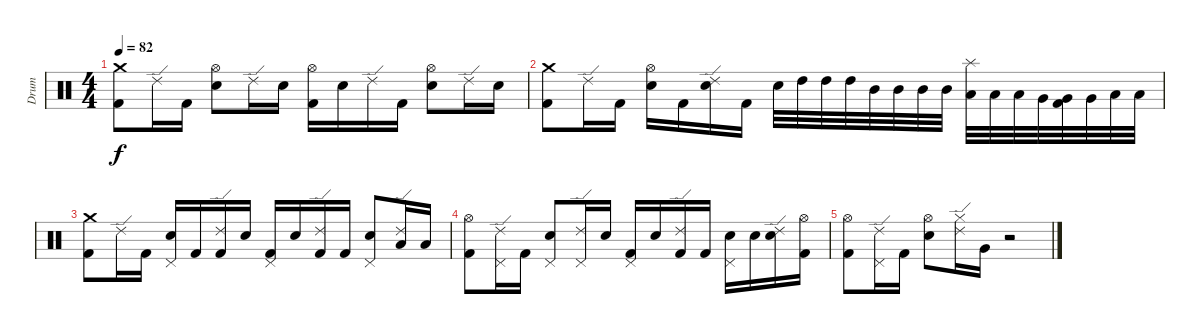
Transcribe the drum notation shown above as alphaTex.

\track ("Drum" "Drum") {instrument percussion}
\staff {score}
\articulation defaults
\ts (4 4)
\tempo 82
\clef neutral
\ks c
("Crash medium (hit)" "Kick (hit) 2").8{dy f} "Ride (edge) 2".16 "Kick (hit) 2".16 ("Hi-Hat (open)" "Electric Snare (hit)").8 "Ride (edge) 2".16 "Electric Snare (hit)".16 ("Hi-Hat (open)" "Kick (hit) 2").16 "Electric Snare (hit)".16 "Ride (edge) 2".16 "Kick (hit) 2".16 ("Hi-Hat (open)" "Electric Snare (hit)").8 "Ride (edge) 2".16 "Electric Snare (hit)".16 |
("Crash medium (hit)" "Kick (hit) 2").8 "Ride (edge) 2".16 "Kick (hit) 2".16 ("Hi-Hat (open)" "Electric Snare (hit)").16 "Kick (hit) 2".16 ("Ride (edge) 2" "Electric Snare (hit)").16 "Kick (hit) 2".16 "Electric Snare (hit)".32 "High Tom (hit)".32 "High Tom (hit)".32 "High Tom (hit)".32 "Mid Tom (hit)".32 "Mid Tom (hit)".32 "Mid Tom (hit)".32 "Mid Tom (hit)".32 ("Splash (hit)" "Low Tom (hit)").32 "Low Tom (hit)".32 "Low Tom (hit)".32 "Very Low Tom (hit)".32 ("Kick (hit) 2" "Very Low Tom (hit)").32 "Very Low Tom (hit)".32 "Low Floor Tom (hit)".32 "Low Floor Tom (hit)".32 |
("Crash medium (hit)" "Kick (hit) 2").8 "Ride (edge) 2".16 "Kick (hit) 2".16 ("Pedal Hi-Hat (hit)" "Electric Snare (hit)").16 "Kick (hit) 2".16 ("Ride (edge) 2" "Kick (hit) 2").16 "Electric Snare (hit)".16 ("Pedal Hi-Hat (hit)" "Kick (hit) 2").16 "Electric Snare (hit)".16 ("Ride (edge) 2" "Kick (hit) 2").16 "Kick (hit) 2".16 ("Pedal Hi-Hat (hit)" "Electric Snare (hit)").8 ("Ride (edge) 2" "Low Tom (hit)").16 "Low Tom (hit)".16 |
("Hi-Hat (open)" "Kick (hit) 2").8 ("Ride (edge) 2" "Pedal Hi-Hat (hit)").16 "Kick (hit) 2".16 ("Pedal Hi-Hat (hit)" "Electric Snare (hit)").8 ("Ride (edge) 2" "Pedal Hi-Hat (hit)").16 "Electric Snare (hit)".16 ("Pedal Hi-Hat (hit)" "Kick (hit) 2").16 "Electric Snare (hit)".16 ("Ride (edge) 2" "Kick (hit) 2").16 "Kick (hit) 2".16 ("Pedal Hi-Hat (hit)" "Electric Snare (hit)").16 "Electric Snare (hit)".16 ("Ride (edge) 2" "Electric Snare (hit)").16 ("Hi-Hat (open)" "Kick (hit) 2").16 |
("Hi-Hat (open)" "Kick (hit) 2").8 ("Ride (edge) 2" "Pedal Hi-Hat (hit)").16 "Kick (hit) 2".16 ("Hi-Hat (open)" "Electric Snare (hit)").8 ("Ride (edge) 2" "Hi-Hat (closed)").16 "Very Low Tom (hit)".16 r.2
